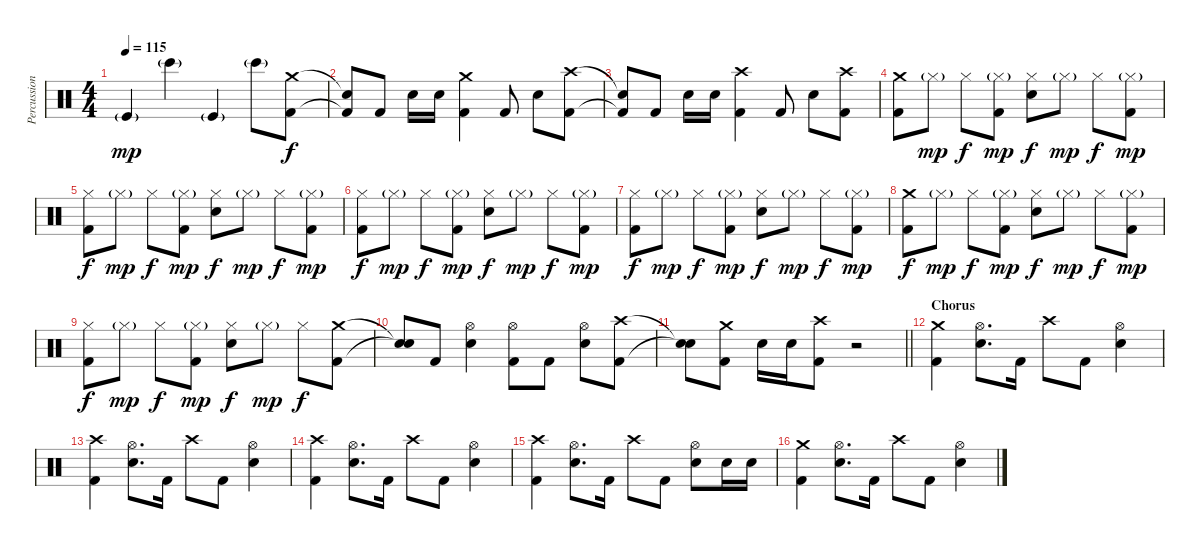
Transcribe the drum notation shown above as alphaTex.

\track ("Percussion" "Percussion") {instrument percussion}
\staff {score}
\articulation defaults
\ts (4 4)
\tempo 115
\clef neutral
\ks c "Kick (hit)"{g}.4{dy mp} "Bongo High (hit)"{g}.4 "Kick (hit)"{g}.4 "Bongo High (hit)"{g}.8
("Crash medium (hit)" "Kick (hit) 2").8{dy f} |
("Snare (hit)"{t} "Kick (hit) 2"{t}).8 "Kick (hit) 2".8 "Electric Snare (hit)".16 "Electric Snare (hit)".16 ("Crash medium (hit)" "Kick (hit) 2").4 "Kick (hit) 2".8 "Electric Snare (hit)".8 ("Crash high (hit)" "Kick (hit) 2").8 |
("Snare (hit)"{t} "Kick (hit) 2"{t}).8 "Kick (hit) 2".8 "Electric Snare (hit)".16 "Electric Snare (hit)".16 ("Crash high (hit)" "Kick (hit) 2").4 "Kick (hit) 2".8 "Electric Snare (hit)".8 ("Crash high (hit)" "Kick (hit) 2").8 |
("Crash medium (hit)" "Kick (hit) 2").8 "Hi-Hat (closed)"{g}.8{dy mp} "Hi-Hat (closed)".8{dy f} ("Hi-Hat (closed)"{g} "Kick (hit) 2").8{dy mp} ("Hi-Hat (closed)" "Electric Snare (hit)").8{dy f} "Hi-Hat (closed)"{g}.8{dy mp} "Hi-Hat (closed)".8{dy f} ("Hi-Hat (closed)"{g} "Kick (hit) 2").8{dy mp} |
("Hi-Hat (closed)" "Kick (hit) 2").8{dy f} "Hi-Hat (closed)"{g}.8{dy mp} "Hi-Hat (closed)".8{dy f} ("Hi-Hat (closed)"{g} "Kick (hit) 2").8{dy mp} ("Hi-Hat (closed)" "Electric Snare (hit)").8{dy f} "Hi-Hat (closed)"{g}.8{dy mp} "Hi-Hat (closed)".8{dy f} ("Hi-Hat (closed)"{g} "Kick (hit) 2").8{dy mp} |
("Hi-Hat (closed)" "Kick (hit) 2").8{dy f} "Hi-Hat (closed)"{g}.8{dy mp} "Hi-Hat (closed)".8{dy f} ("Hi-Hat (closed)"{g} "Kick (hit) 2").8{dy mp} ("Hi-Hat (closed)" "Electric Snare (hit)").8{dy f} "Hi-Hat (closed)"{g}.8{dy mp} "Hi-Hat (closed)".8{dy f} ("Hi-Hat (closed)"{g} "Kick (hit) 2").8{dy mp} |
("Hi-Hat (closed)" "Kick (hit) 2").8{dy f} "Hi-Hat (closed)"{g}.8{dy mp} "Hi-Hat (closed)".8{dy f} ("Hi-Hat (closed)"{g} "Kick (hit) 2").8{dy mp} ("Hi-Hat (closed)" "Electric Snare (hit)").8{dy f} "Hi-Hat (closed)"{g}.8{dy mp} "Hi-Hat (closed)".8{dy f} ("Hi-Hat (closed)"{g} "Kick (hit) 2").8{dy mp} |
("Crash medium (hit)" "Kick (hit) 2").8{dy f} "Hi-Hat (closed)"{g}.8{dy mp} "Hi-Hat (closed)".8{dy f} ("Hi-Hat (closed)"{g} "Kick (hit) 2").8{dy mp} ("Hi-Hat (closed)" "Electric Snare (hit)").8{dy f} "Hi-Hat (closed)"{g}.8{dy mp} "Hi-Hat (closed)".8{dy f} ("Hi-Hat (closed)"{g} "Kick (hit) 2").8{dy mp} |
("Hi-Hat (closed)" "Kick (hit) 2").8{dy f} "Hi-Hat (closed)"{g}.8{dy mp} "Hi-Hat (closed)".8{dy f} ("Hi-Hat (closed)"{g} "Kick (hit) 2").8{dy mp} ("Hi-Hat (closed)" "Electric Snare (hit)").8{dy f} "Hi-Hat (closed)"{g}.8{dy mp} "Hi-Hat (closed)".8{dy f} ("Crash medium (hit)" "Kick (hit) 2").8 |
("Snare (hit)"{t} "Snare (hit)"{t}).8 "Kick (hit) 2".8 ("Hi-Hat (open)" "Electric Snare (hit)").4 ("Hi-Hat (open)" "Kick (hit) 2").8 "Kick (hit) 2".8 ("Hi-Hat (open)" "Electric Snare (hit)").8 ("Crash high (hit)" "Kick (hit) 2").8 |
\barLineRight lightlight
("Snare (hit)"{t} "Snare (hit)"{t}).8 ("Crash medium (hit)" "Kick (hit) 2").8 "Electric Snare (hit)".16 "Electric Snare (hit)".16 ("Crash high (hit)" "Kick (hit) 2").8 r.2 |
\section ("" "Chorus")
("Crash medium (hit)" "Kick (hit) 2").4 ("Hi-Hat (open)" "Electric Snare (hit)").8{d} "Kick (hit) 2".16 "Crash high (hit)".8 "Kick (hit) 2".8 ("Hi-Hat (open)" "Electric Snare (hit)").4 |
("Crash high (hit)" "Kick (hit) 2").4 ("Hi-Hat (open)" "Electric Snare (hit)").8{d} "Kick (hit) 2".16 "Crash high (hit)".8 "Kick (hit) 2".8 ("Hi-Hat (open)" "Electric Snare (hit)").4 |
("Crash high (hit)" "Kick (hit) 2").4 ("Hi-Hat (open)" "Electric Snare (hit)").8{d} "Kick (hit) 2".16 "Crash high (hit)".8 "Kick (hit) 2".8 ("Hi-Hat (open)" "Electric Snare (hit)").4 |
("Crash high (hit)" "Kick (hit) 2").4 ("Hi-Hat (open)" "Electric Snare (hit)").8{d} "Kick (hit) 2".16 "Crash high (hit)".8 "Kick (hit) 2".8 ("Hi-Hat (open)" "Electric Snare (hit)").8 "Electric Snare (hit)".16 "Electric Snare (hit)".16 |
("Crash medium (hit)" "Kick (hit) 2").4 ("Hi-Hat (open)" "Electric Snare (hit)").8{d} "Kick (hit) 2".16 "Crash high (hit)".8 "Kick (hit) 2".8 ("Hi-Hat (open)" "Electric Snare (hit)").4
